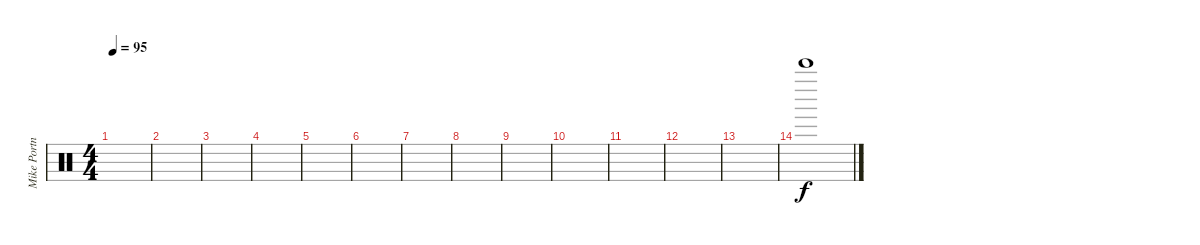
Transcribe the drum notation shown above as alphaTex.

\track ("Mike Portnoy" "Mike Portn") {instrument percussion}
\staff {score}
\articulation defaults
\ts (4 4)
\tempo 95
\clef neutral
\ks c
|
|
|
|
|
|
|
|
|
|
|
|
|
"Bell Tree (hit)".1
